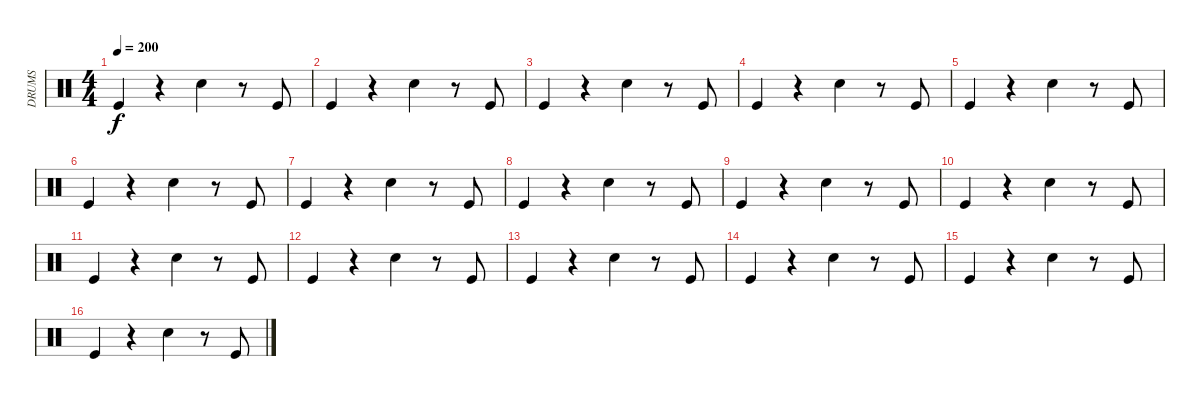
\track ("DRUMS" "DRUMS") {instrument percussion}
\staff {score}
\articulation defaults
\ts (4 4)
\tempo 200
\clef neutral
\ks c "Kick (hit)".4{dy f}
r.4 "Snare (hit) 2".4 r.8 "Kick (hit)".8 |
"Kick (hit)".4 r.4 "Snare (hit) 2".4 r.8 "Kick (hit)".8 |
"Kick (hit)".4 r.4 "Snare (hit) 2".4 r.8 "Kick (hit)".8 |
"Kick (hit)".4 r.4 "Snare (hit) 2".4 r.8 "Kick (hit)".8 |
"Kick (hit)".4 r.4 "Snare (hit) 2".4 r.8 "Kick (hit)".8 |
"Kick (hit)".4 r.4 "Snare (hit) 2".4 r.8 "Kick (hit)".8 |
"Kick (hit)".4 r.4 "Snare (hit) 2".4 r.8 "Kick (hit)".8 |
"Kick (hit)".4 r.4 "Snare (hit) 2".4 r.8 "Kick (hit)".8 |
"Kick (hit)".4 r.4 "Snare (hit) 2".4 r.8 "Kick (hit)".8 |
"Kick (hit)".4 r.4 "Snare (hit) 2".4 r.8 "Kick (hit)".8 |
"Kick (hit)".4 r.4 "Snare (hit) 2".4 r.8 "Kick (hit)".8 |
"Kick (hit)".4 r.4 "Snare (hit) 2".4 r.8 "Kick (hit)".8 |
"Kick (hit)".4 r.4 "Snare (hit) 2".4 r.8 "Kick (hit)".8 |
"Kick (hit)".4 r.4 "Snare (hit) 2".4 r.8 "Kick (hit)".8 |
"Kick (hit)".4 r.4 "Snare (hit) 2".4 r.8 "Kick (hit)".8 |
"Kick (hit)".4 r.4 "Snare (hit) 2".4 r.8 "Kick (hit)".8
